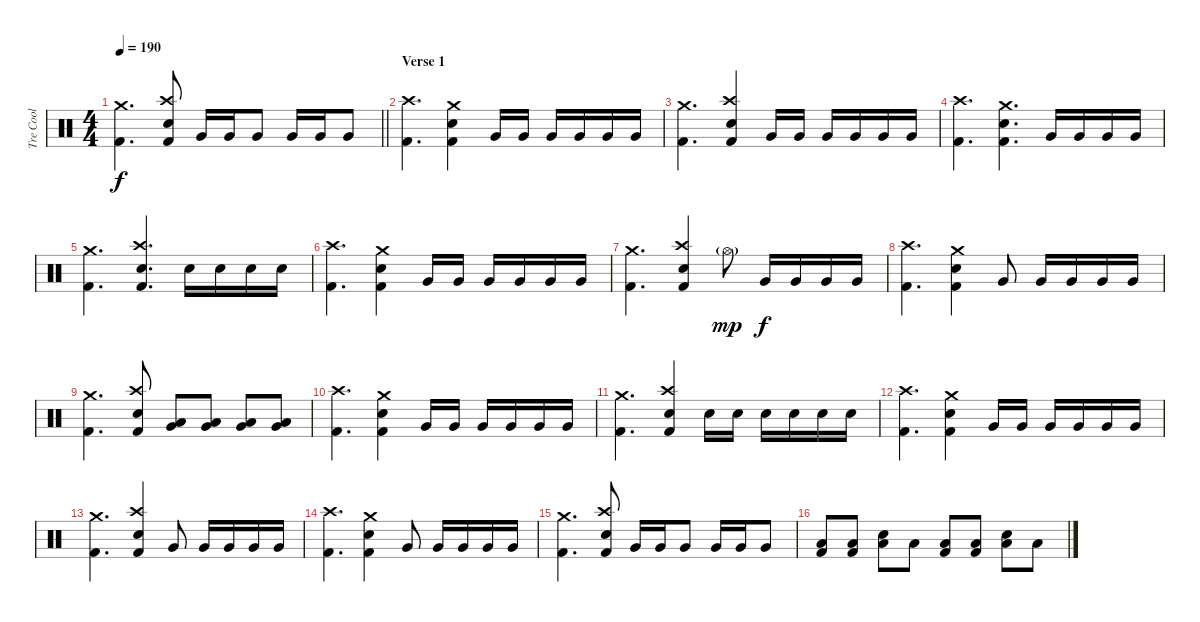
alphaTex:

\track ("Tre Cool" "Tre Cool") {instrument percussion}
\staff {score}
\articulation defaults
\ts (4 4)
\tempo 190
\clef neutral
\barLineRight lightlight
\ks c
("Crash medium (hit)" "Kick (hit) 2").4{d dy f} ("Crash high (hit)" "Snare (hit) 2" "Kick (hit) 2").8 "Very Low Tom (hit)".16 "Very Low Tom (hit)".16 "Very Low Tom (hit)".8 "Very Low Tom (hit)".16 "Very Low Tom (hit)".16 "Very Low Tom (hit)".8 |
\section ("" "Verse 1")
("Crash high (hit)" "Kick (hit) 2").4{d} ("Crash medium (hit)" "Snare (hit) 2" "Kick (hit) 2").4 "Very Low Tom (hit)".16 "Very Low Tom (hit)".16 "Very Low Tom (hit)".16 "Very Low Tom (hit)".16 "Very Low Tom (hit)".16 "Very Low Tom (hit)".16 |
("Crash medium (hit)" "Kick (hit) 2").4{d} ("Crash high (hit)" "Snare (hit) 2" "Kick (hit) 2").4 "Very Low Tom (hit)".16 "Very Low Tom (hit)".16 "Very Low Tom (hit)".16 "Very Low Tom (hit)".16 "Very Low Tom (hit)".16 "Very Low Tom (hit)".16 |
("Crash high (hit)" "Kick (hit) 2").4{d} ("Crash medium (hit)" "Snare (hit) 2" "Kick (hit) 2").4{d} "Very Low Tom (hit)".16 "Very Low Tom (hit)".16 "Very Low Tom (hit)".16 "Very Low Tom (hit)".16 |
("Crash medium (hit)" "Kick (hit) 2").4{d} ("Crash high (hit)" "Snare (hit) 2" "Kick (hit) 2").4{d} "Snare (hit) 2".16 "Snare (hit) 2".16 "Snare (hit) 2".16 "Snare (hit) 2".16 |
("Crash high (hit)" "Kick (hit) 2").4{d} ("Crash medium (hit)" "Snare (hit) 2" "Kick (hit) 2").4 "Very Low Tom (hit)".16 "Very Low Tom (hit)".16 "Very Low Tom (hit)".16 "Very Low Tom (hit)".16 "Very Low Tom (hit)".16 "Very Low Tom (hit)".16 |
("Crash medium (hit)" "Kick (hit) 2").4{d} ("Crash high (hit)" "Snare (hit) 2" "Kick (hit) 2").4 "Hi-Hat (open)"{g}.8{dy mp} "Very Low Tom (hit)".16{dy f} "Very Low Tom (hit)".16 "Very Low Tom (hit)".16 "Very Low Tom (hit)".16 |
("Crash high (hit)" "Kick (hit) 2").4{d} ("Crash medium (hit)" "Snare (hit) 2" "Kick (hit) 2").4 "Very Low Tom (hit)".8 "Very Low Tom (hit)".16 "Very Low Tom (hit)".16 "Very Low Tom (hit)".16 "Very Low Tom (hit)".16 |
("Crash medium (hit)" "Kick (hit) 2").4{d} ("Crash high (hit)" "Snare (hit) 2" "Kick (hit) 2").8 ("Low Tom (hit)" "Very Low Tom (hit)").8 ("Low Tom (hit)" "Very Low Tom (hit)").8 ("Low Tom (hit)" "Very Low Tom (hit)").8 ("Low Tom (hit)" "Very Low Tom (hit)").8 |
("Crash high (hit)" "Kick (hit) 2").4{d} ("Crash medium (hit)" "Snare (hit) 2" "Kick (hit) 2").4 "Very Low Tom (hit)".16 "Very Low Tom (hit)".16 "Very Low Tom (hit)".16 "Very Low Tom (hit)".16 "Very Low Tom (hit)".16 "Very Low Tom (hit)".16 |
("Crash medium (hit)" "Kick (hit) 2").4{d} ("Crash high (hit)" "Snare (hit) 2" "Kick (hit) 2").4 "Snare (hit) 2".16 "Snare (hit) 2".16 "Snare (hit) 2".16 "Snare (hit) 2".16 "Snare (hit) 2".16 "Snare (hit) 2".16 |
("Crash high (hit)" "Kick (hit) 2").4{d} ("Crash medium (hit)" "Snare (hit) 2" "Kick (hit) 2").4 "Very Low Tom (hit)".16 "Very Low Tom (hit)".16 "Very Low Tom (hit)".16 "Very Low Tom (hit)".16 "Very Low Tom (hit)".16 "Very Low Tom (hit)".16 |
("Crash medium (hit)" "Kick (hit) 2").4{d} ("Crash high (hit)" "Snare (hit) 2" "Kick (hit) 2").4 "Very Low Tom (hit)".8 "Very Low Tom (hit)".16 "Very Low Tom (hit)".16 "Very Low Tom (hit)".16 "Very Low Tom (hit)".16 |
("Crash high (hit)" "Kick (hit) 2").4{d} ("Crash medium (hit)" "Snare (hit) 2" "Kick (hit) 2").4 "Very Low Tom (hit)".8 "Very Low Tom (hit)".16 "Very Low Tom (hit)".16 "Very Low Tom (hit)".16 "Very Low Tom (hit)".16 |
("Crash medium (hit)" "Kick (hit) 2").4{d} ("Crash high (hit)" "Snare (hit) 2" "Kick (hit) 2").8 "Very Low Tom (hit)".16 "Very Low Tom (hit)".16 "Very Low Tom (hit)".8 "Very Low Tom (hit)".16 "Very Low Tom (hit)".16 "Very Low Tom (hit)".8 |
("Low Tom (hit)" "Kick (hit) 2").8 ("Low Tom (hit)" "Kick (hit) 2").8 ("Low Tom (hit)" "Snare (hit) 2").8 "Low Tom (hit)".8 ("Low Tom (hit)" "Kick (hit) 2").8 ("Low Tom (hit)" "Kick (hit) 2").8 ("Low Tom (hit)" "Snare (hit) 2").8 "Low Tom (hit)".8
